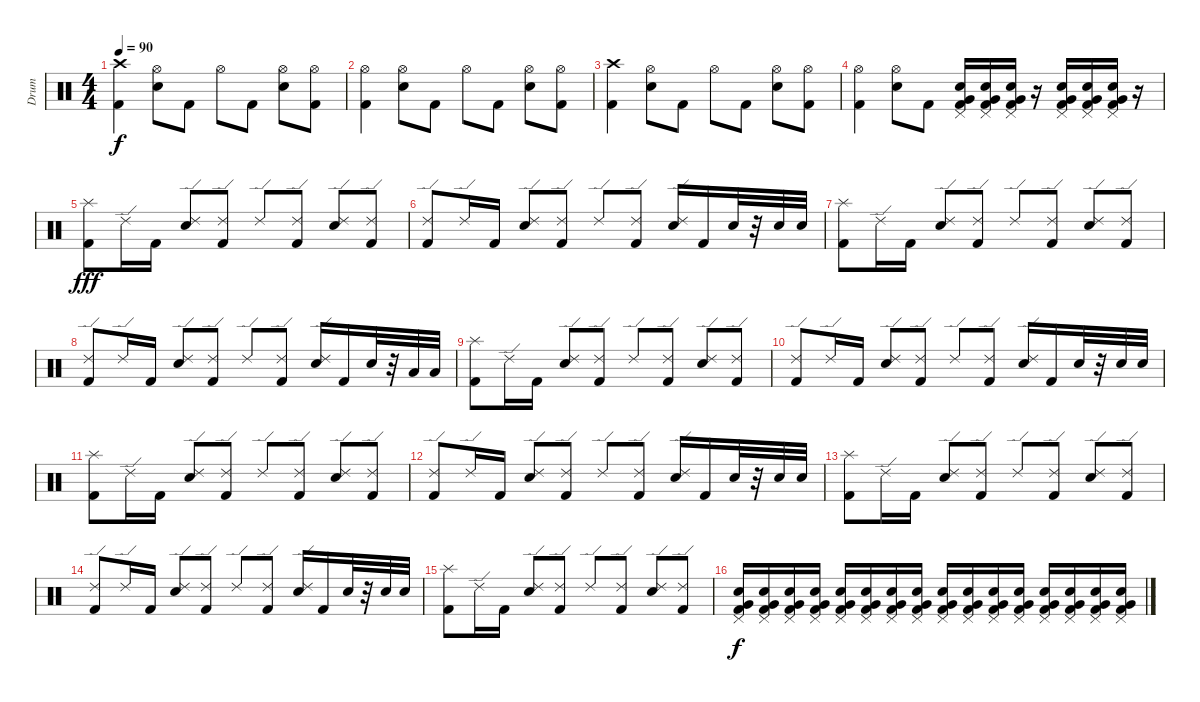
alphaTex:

\track ("Drum" "Drum") {instrument percussion}
\staff {score}
\articulation defaults
\ts (4 4)
\tempo 90
\clef neutral
\ks c
("Crash high (hit)" "Kick (hit) 2").4{dy f} ("Hi-Hat (open)" "Electric Snare (hit)").8 "Kick (hit) 2".8 "Hi-Hat (open)".8 "Kick (hit) 2".8 ("Hi-Hat (open)" "Electric Snare (hit)").8 ("Hi-Hat (open)" "Kick (hit) 2").8 |
("Hi-Hat (open)" "Kick (hit) 2").4 ("Hi-Hat (open)" "Electric Snare (hit)").8 "Kick (hit) 2".8 "Hi-Hat (open)".8 "Kick (hit) 2".8 ("Hi-Hat (open)" "Electric Snare (hit)").8 ("Hi-Hat (open)" "Kick (hit) 2").8 |
("Crash high (hit)" "Kick (hit) 2").4 ("Hi-Hat (open)" "Electric Snare (hit)").8 "Kick (hit) 2".8 "Hi-Hat (open)".8 "Kick (hit) 2".8 ("Hi-Hat (open)" "Electric Snare (hit)").8 ("Hi-Hat (open)" "Kick (hit) 2").8 |
("Hi-Hat (open)" "Kick (hit) 2").4 ("Hi-Hat (open)" "Electric Snare (hit)").8 "Kick (hit) 2".8 ("Pedal Hi-Hat (hit)" "Kick (hit) 2" "Electric Snare (hit)" "Very Low Tom (hit)").16 ("Pedal Hi-Hat (hit)" "Kick (hit) 2" "Electric Snare (hit)" "Very Low Tom (hit)").16 ("Pedal Hi-Hat (hit)" "Kick (hit) 2" "Electric Snare (hit)" "Very Low Tom (hit)").16 r.16 ("Pedal Hi-Hat (hit)" "Kick (hit) 2" "Electric Snare (hit)" "Very Low Tom (hit)").16 ("Pedal Hi-Hat (hit)" "Kick (hit) 2" "Electric Snare (hit)" "Very Low Tom (hit)").16 ("Pedal Hi-Hat (hit)" "Kick (hit) 2" "Electric Snare (hit)" "Very Low Tom (hit)").16 r.16 |
("Splash (hit)" "Kick (hit) 2").8{dy fff} "Ride (edge) 2".16 "Kick (hit) 2".16 ("Ride (edge) 2" "Electric Snare (hit)").8 ("Ride (edge) 2" "Kick (hit) 2").8 "Ride (edge) 2".8 ("Ride (edge) 2" "Kick (hit) 2").8 ("Ride (edge) 2" "Electric Snare (hit)").8 ("Ride (edge) 2" "Kick (hit) 2").8 |
("Ride (edge) 2" "Kick (hit) 2").8 "Ride (edge) 2".16 "Kick (hit) 2".16 ("Ride (edge) 2" "Electric Snare (hit)").8 ("Ride (edge) 2" "Kick (hit) 2").8 "Ride (edge) 2".8 ("Ride (edge) 2" "Kick (hit) 2").8 ("Ride (edge) 2" "Electric Snare (hit)").16 "Kick (hit) 2".16 "Electric Snare (hit)".32 r.32 "Electric Snare (hit)".32 "Electric Snare (hit)".32 |
("Splash (hit)" "Kick (hit) 2").8 "Ride (edge) 2".16 "Kick (hit) 2".16 ("Ride (edge) 2" "Electric Snare (hit)").8 ("Ride (edge) 2" "Kick (hit) 2").8 "Ride (edge) 2".8 ("Ride (edge) 2" "Kick (hit) 2").8 ("Ride (edge) 2" "Electric Snare (hit)").8 ("Ride (edge) 2" "Kick (hit) 2").8 |
("Ride (edge) 2" "Kick (hit) 2").8 "Ride (edge) 2".16 "Kick (hit) 2".16 ("Ride (edge) 2" "Electric Snare (hit)").8 ("Ride (edge) 2" "Kick (hit) 2").8 "Ride (edge) 2".8 ("Ride (edge) 2" "Kick (hit) 2").8 ("Ride (edge) 2" "Electric Snare (hit)").16 "Kick (hit) 2".16 "Electric Snare (hit)".32 r.32 "Low Tom (hit)".32 "Low Tom (hit)".32 |
("Splash (hit)" "Kick (hit) 2").8 "Ride (edge) 2".16 "Kick (hit) 2".16 ("Ride (edge) 2" "Electric Snare (hit)").8 ("Ride (edge) 2" "Kick (hit) 2").8 "Ride (edge) 2".8 ("Ride (edge) 2" "Kick (hit) 2").8 ("Ride (edge) 2" "Electric Snare (hit)").8 ("Ride (edge) 2" "Kick (hit) 2").8 |
("Ride (edge) 2" "Kick (hit) 2").8 "Ride (edge) 2".16 "Kick (hit) 2".16 ("Ride (edge) 2" "Electric Snare (hit)").8 ("Ride (edge) 2" "Kick (hit) 2").8 "Ride (edge) 2".8 ("Ride (edge) 2" "Kick (hit) 2").8 ("Ride (edge) 2" "Electric Snare (hit)").16 "Kick (hit) 2".16 "Electric Snare (hit)".32 r.32 "Electric Snare (hit)".32 "Electric Snare (hit)".32 |
("Splash (hit)" "Kick (hit) 2").8 "Ride (edge) 2".16 "Kick (hit) 2".16 ("Ride (edge) 2" "Electric Snare (hit)").8 ("Ride (edge) 2" "Kick (hit) 2").8 "Ride (edge) 2".8 ("Ride (edge) 2" "Kick (hit) 2").8 ("Ride (edge) 2" "Electric Snare (hit)").8 ("Ride (edge) 2" "Kick (hit) 2").8 |
("Ride (edge) 2" "Kick (hit) 2").8 "Ride (edge) 2".16 "Kick (hit) 2".16 ("Ride (edge) 2" "Electric Snare (hit)").8 ("Ride (edge) 2" "Kick (hit) 2").8 "Ride (edge) 2".8 ("Ride (edge) 2" "Kick (hit) 2").8 ("Ride (edge) 2" "Electric Snare (hit)").16 "Kick (hit) 2".16 "Electric Snare (hit)".32 r.32 "Electric Snare (hit)".32 "Electric Snare (hit)".32 |
("Splash (hit)" "Kick (hit) 2").8 "Ride (edge) 2".16 "Kick (hit) 2".16 ("Ride (edge) 2" "Electric Snare (hit)").8 ("Ride (edge) 2" "Kick (hit) 2").8 "Ride (edge) 2".8 ("Ride (edge) 2" "Kick (hit) 2").8 ("Ride (edge) 2" "Electric Snare (hit)").8 ("Ride (edge) 2" "Kick (hit) 2").8 |
("Ride (edge) 2" "Kick (hit) 2").8 "Ride (edge) 2".16 "Kick (hit) 2".16 ("Ride (edge) 2" "Electric Snare (hit)").8 ("Ride (edge) 2" "Kick (hit) 2").8 "Ride (edge) 2".8 ("Ride (edge) 2" "Kick (hit) 2").8 ("Ride (edge) 2" "Electric Snare (hit)").16 "Kick (hit) 2".16 "Electric Snare (hit)".32 r.32 "Electric Snare (hit)".32 "Electric Snare (hit)".32 |
("Splash (hit)" "Kick (hit) 2").8 "Ride (edge) 2".16 "Kick (hit) 2".16 ("Ride (edge) 2" "Electric Snare (hit)").8 ("Ride (edge) 2" "Kick (hit) 2").8 "Ride (edge) 2".8 ("Ride (edge) 2" "Kick (hit) 2").8 ("Ride (edge) 2" "Electric Snare (hit)").8 ("Ride (edge) 2" "Kick (hit) 2").8 |
("Pedal Hi-Hat (hit)" "Kick (hit) 2" "Electric Snare (hit)" "Very Low Tom (hit)").16{dy f} ("Pedal Hi-Hat (hit)" "Kick (hit) 2" "Electric Snare (hit)" "Very Low Tom (hit)").16 ("Pedal Hi-Hat (hit)" "Kick (hit) 2" "Electric Snare (hit)" "Very Low Tom (hit)").16 ("Pedal Hi-Hat (hit)" "Kick (hit) 2" "Electric Snare (hit)" "Very Low Tom (hit)").16 ("Pedal Hi-Hat (hit)" "Kick (hit) 2" "Electric Snare (hit)" "Very Low Tom (hit)").16 ("Pedal Hi-Hat (hit)" "Kick (hit) 2" "Electric Snare (hit)" "Very Low Tom (hit)").16 ("Pedal Hi-Hat (hit)" "Kick (hit) 2" "Electric Snare (hit)" "Very Low Tom (hit)").16 ("Pedal Hi-Hat (hit)" "Kick (hit) 2" "Electric Snare (hit)" "Very Low Tom (hit)").16 ("Pedal Hi-Hat (hit)" "Kick (hit) 2" "Electric Snare (hit)" "Very Low Tom (hit)").16 ("Pedal Hi-Hat (hit)" "Kick (hit) 2" "Electric Snare (hit)" "Very Low Tom (hit)").16 ("Pedal Hi-Hat (hit)" "Kick (hit) 2" "Electric Snare (hit)" "Very Low Tom (hit)").16 ("Pedal Hi-Hat (hit)" "Kick (hit) 2" "Electric Snare (hit)" "Very Low Tom (hit)").16 ("Pedal Hi-Hat (hit)" "Kick (hit) 2" "Electric Snare (hit)" "Very Low Tom (hit)").16 ("Pedal Hi-Hat (hit)" "Kick (hit) 2" "Electric Snare (hit)" "Very Low Tom (hit)").16 ("Pedal Hi-Hat (hit)" "Kick (hit) 2" "Electric Snare (hit)" "Very Low Tom (hit)").16 ("Pedal Hi-Hat (hit)" "Kick (hit) 2" "Electric Snare (hit)" "Very Low Tom (hit)").16
